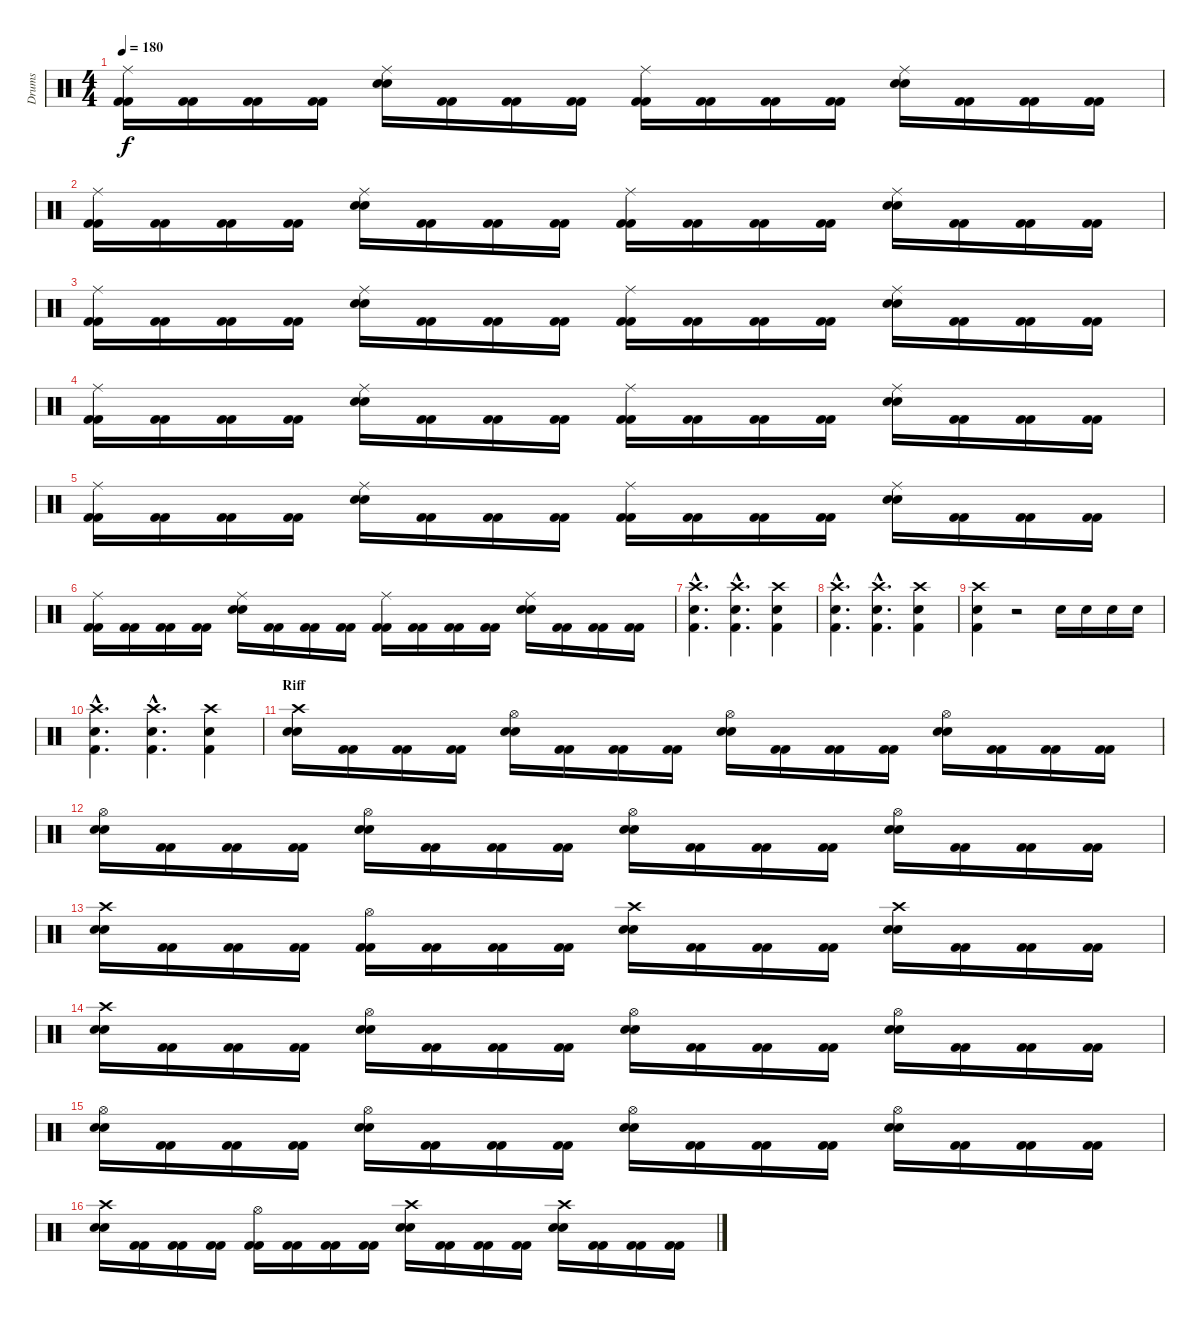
\track ("Drums" "Drums") {instrument percussion}
\staff {score}
\articulation defaults
\ts (4 4)
\tempo 180
\clef neutral
\ks c
("Ride (middle)" "Kick (hit) 2" "Kick (hit) 2").16{dy f} ("Kick (hit) 2" "Kick (hit) 2").16 ("Kick (hit) 2" "Kick (hit) 2").16 ("Kick (hit) 2" "Kick (hit) 2").16 ("Ride (middle)" "Snare (hit) 2" "Snare (hit) 2").16 ("Kick (hit) 2" "Kick (hit) 2").16 ("Kick (hit) 2" "Kick (hit) 2").16 ("Kick (hit) 2" "Kick (hit) 2").16 ("Ride (middle)" "Kick (hit) 2" "Kick (hit) 2").16 ("Kick (hit) 2" "Kick (hit) 2").16 ("Kick (hit) 2" "Kick (hit) 2").16 ("Kick (hit) 2" "Kick (hit) 2").16 ("Ride (middle)" "Snare (hit) 2" "Snare (hit) 2").16 ("Kick (hit) 2" "Kick (hit) 2").16 ("Kick (hit) 2" "Kick (hit) 2").16 ("Kick (hit) 2" "Kick (hit) 2").16 |
("Ride (middle)" "Kick (hit) 2" "Kick (hit) 2").16 ("Kick (hit) 2" "Kick (hit) 2").16 ("Kick (hit) 2" "Kick (hit) 2").16 ("Kick (hit) 2" "Kick (hit) 2").16 ("Ride (middle)" "Snare (hit) 2" "Snare (hit) 2").16 ("Kick (hit) 2" "Kick (hit) 2").16 ("Kick (hit) 2" "Kick (hit) 2").16 ("Kick (hit) 2" "Kick (hit) 2").16 ("Ride (middle)" "Kick (hit) 2" "Kick (hit) 2").16 ("Kick (hit) 2" "Kick (hit) 2").16 ("Kick (hit) 2" "Kick (hit) 2").16 ("Kick (hit) 2" "Kick (hit) 2").16 ("Ride (middle)" "Snare (hit) 2" "Snare (hit) 2").16 ("Kick (hit) 2" "Kick (hit) 2").16 ("Kick (hit) 2" "Kick (hit) 2").16 ("Kick (hit) 2" "Kick (hit) 2").16 |
("Ride (middle)" "Kick (hit) 2" "Kick (hit) 2").16 ("Kick (hit) 2" "Kick (hit) 2").16 ("Kick (hit) 2" "Kick (hit) 2").16 ("Kick (hit) 2" "Kick (hit) 2").16 ("Ride (middle)" "Snare (hit) 2" "Snare (hit) 2").16 ("Kick (hit) 2" "Kick (hit) 2").16 ("Kick (hit) 2" "Kick (hit) 2").16 ("Kick (hit) 2" "Kick (hit) 2").16 ("Ride (middle)" "Kick (hit) 2" "Kick (hit) 2").16 ("Kick (hit) 2" "Kick (hit) 2").16 ("Kick (hit) 2" "Kick (hit) 2").16 ("Kick (hit) 2" "Kick (hit) 2").16 ("Ride (middle)" "Snare (hit) 2" "Snare (hit) 2").16 ("Kick (hit) 2" "Kick (hit) 2").16 ("Kick (hit) 2" "Kick (hit) 2").16 ("Kick (hit) 2" "Kick (hit) 2").16 |
("Ride (middle)" "Kick (hit) 2" "Kick (hit) 2").16 ("Kick (hit) 2" "Kick (hit) 2").16 ("Kick (hit) 2" "Kick (hit) 2").16 ("Kick (hit) 2" "Kick (hit) 2").16 ("Ride (middle)" "Snare (hit) 2" "Snare (hit) 2").16 ("Kick (hit) 2" "Kick (hit) 2").16 ("Kick (hit) 2" "Kick (hit) 2").16 ("Kick (hit) 2" "Kick (hit) 2").16 ("Ride (middle)" "Kick (hit) 2" "Kick (hit) 2").16 ("Kick (hit) 2" "Kick (hit) 2").16 ("Kick (hit) 2" "Kick (hit) 2").16 ("Kick (hit) 2" "Kick (hit) 2").16 ("Ride (middle)" "Snare (hit) 2" "Snare (hit) 2").16 ("Kick (hit) 2" "Kick (hit) 2").16 ("Kick (hit) 2" "Kick (hit) 2").16 ("Kick (hit) 2" "Kick (hit) 2").16 |
("Ride (middle)" "Kick (hit) 2" "Kick (hit) 2").16 ("Kick (hit) 2" "Kick (hit) 2").16 ("Kick (hit) 2" "Kick (hit) 2").16 ("Kick (hit) 2" "Kick (hit) 2").16 ("Ride (middle)" "Snare (hit) 2" "Snare (hit) 2").16 ("Kick (hit) 2" "Kick (hit) 2").16 ("Kick (hit) 2" "Kick (hit) 2").16 ("Kick (hit) 2" "Kick (hit) 2").16 ("Ride (middle)" "Kick (hit) 2" "Kick (hit) 2").16 ("Kick (hit) 2" "Kick (hit) 2").16 ("Kick (hit) 2" "Kick (hit) 2").16 ("Kick (hit) 2" "Kick (hit) 2").16 ("Ride (middle)" "Snare (hit) 2" "Snare (hit) 2").16 ("Kick (hit) 2" "Kick (hit) 2").16 ("Kick (hit) 2" "Kick (hit) 2").16 ("Kick (hit) 2" "Kick (hit) 2").16 |
("Ride (middle)" "Kick (hit) 2" "Kick (hit) 2").16 ("Kick (hit) 2" "Kick (hit) 2").16 ("Kick (hit) 2" "Kick (hit) 2").16 ("Kick (hit) 2" "Kick (hit) 2").16 ("Ride (middle)" "Snare (hit) 2" "Snare (hit) 2").16 ("Kick (hit) 2" "Kick (hit) 2").16 ("Kick (hit) 2" "Kick (hit) 2").16 ("Kick (hit) 2" "Kick (hit) 2").16 ("Ride (middle)" "Kick (hit) 2" "Kick (hit) 2").16 ("Kick (hit) 2" "Kick (hit) 2").16 ("Kick (hit) 2" "Kick (hit) 2").16 ("Kick (hit) 2" "Kick (hit) 2").16 ("Ride (middle)" "Snare (hit) 2" "Snare (hit) 2").16 ("Kick (hit) 2" "Kick (hit) 2").16 ("Kick (hit) 2" "Kick (hit) 2").16 ("Kick (hit) 2" "Kick (hit) 2").16 |
("Crash high (hit)"{hac} "Snare (hit) 2"{hac} "Kick (hit) 2"{hac}).4{d} ("Crash high (hit)"{hac} "Snare (hit) 2"{hac} "Kick (hit) 2"{hac}).4{d} ("Crash high (hit)" "Snare (hit) 2" "Kick (hit) 2").4 |
("Crash high (hit)"{hac} "Snare (hit) 2"{hac} "Kick (hit) 2"{hac}).4{d} ("Crash high (hit)"{hac} "Snare (hit) 2"{hac} "Kick (hit) 2"{hac}).4{d} ("Crash high (hit)" "Snare (hit) 2" "Kick (hit) 2").4 |
("Crash high (hit)" "Snare (hit) 2" "Kick (hit) 2").4 r.2 "Snare (hit) 2".16 "Snare (hit) 2".16 "Snare (hit) 2".16 "Snare (hit) 2".16 |
("Crash high (hit)"{hac} "Snare (hit) 2"{hac} "Kick (hit) 2"{hac}).4{d} ("Crash high (hit)"{hac} "Snare (hit) 2"{hac} "Kick (hit) 2"{hac}).4{d} ("Crash high (hit)" "Snare (hit) 2" "Kick (hit) 2").4 |
\section ("" "Riff")
("Crash high (hit)" "Snare (hit) 2" "Snare (hit) 2").16 ("Kick (hit) 2" "Kick (hit) 2").16 ("Kick (hit) 2" "Kick (hit) 2").16 ("Kick (hit) 2" "Kick (hit) 2").16 ("Hi-Hat (open)" "Snare (hit) 2" "Snare (hit) 2").16 ("Kick (hit) 2" "Kick (hit) 2").16 ("Kick (hit) 2" "Kick (hit) 2").16 ("Kick (hit) 2" "Kick (hit) 2").16 ("Hi-Hat (open)" "Snare (hit) 2" "Snare (hit) 2").16 ("Kick (hit) 2" "Kick (hit) 2").16 ("Kick (hit) 2" "Kick (hit) 2").16 ("Kick (hit) 2" "Kick (hit) 2").16 ("Hi-Hat (open)" "Snare (hit) 2" "Snare (hit) 2").16 ("Kick (hit) 2" "Kick (hit) 2").16 ("Kick (hit) 2" "Kick (hit) 2").16 ("Kick (hit) 2" "Kick (hit) 2").16 |
("Hi-Hat (open)" "Snare (hit) 2" "Snare (hit) 2").16 ("Kick (hit) 2" "Kick (hit) 2").16 ("Kick (hit) 2" "Kick (hit) 2").16 ("Kick (hit) 2" "Kick (hit) 2").16 ("Hi-Hat (open)" "Snare (hit) 2" "Snare (hit) 2").16 ("Kick (hit) 2" "Kick (hit) 2").16 ("Kick (hit) 2" "Kick (hit) 2").16 ("Kick (hit) 2" "Kick (hit) 2").16 ("Hi-Hat (open)" "Snare (hit) 2" "Snare (hit) 2").16 ("Kick (hit) 2" "Kick (hit) 2").16 ("Kick (hit) 2" "Kick (hit) 2").16 ("Kick (hit) 2" "Kick (hit) 2").16 ("Hi-Hat (open)" "Snare (hit) 2" "Snare (hit) 2").16 ("Kick (hit) 2" "Kick (hit) 2").16 ("Kick (hit) 2" "Kick (hit) 2").16 ("Kick (hit) 2" "Kick (hit) 2").16 |
("Crash high (hit)" "Snare (hit) 2" "Snare (hit) 2").16 ("Kick (hit) 2" "Kick (hit) 2").16 ("Kick (hit) 2" "Kick (hit) 2").16 ("Kick (hit) 2" "Kick (hit) 2").16 ("Hi-Hat (open)" "Kick (hit) 2" "Kick (hit) 2").16 ("Kick (hit) 2" "Kick (hit) 2").16 ("Kick (hit) 2" "Kick (hit) 2").16 ("Kick (hit) 2" "Kick (hit) 2").16 ("Crash high (hit)" "Snare (hit) 2" "Snare (hit) 2").16 ("Kick (hit) 2" "Kick (hit) 2").16 ("Kick (hit) 2" "Kick (hit) 2").16 ("Kick (hit) 2" "Kick (hit) 2").16 ("Crash high (hit)" "Snare (hit) 2" "Snare (hit) 2").16 ("Kick (hit) 2" "Kick (hit) 2").16 ("Kick (hit) 2" "Kick (hit) 2").16 ("Kick (hit) 2" "Kick (hit) 2").16 |
("Crash high (hit)" "Snare (hit) 2" "Snare (hit) 2").16 ("Kick (hit) 2" "Kick (hit) 2").16 ("Kick (hit) 2" "Kick (hit) 2").16 ("Kick (hit) 2" "Kick (hit) 2").16 ("Hi-Hat (open)" "Snare (hit) 2" "Snare (hit) 2").16 ("Kick (hit) 2" "Kick (hit) 2").16 ("Kick (hit) 2" "Kick (hit) 2").16 ("Kick (hit) 2" "Kick (hit) 2").16 ("Hi-Hat (open)" "Snare (hit) 2" "Snare (hit) 2").16 ("Kick (hit) 2" "Kick (hit) 2").16 ("Kick (hit) 2" "Kick (hit) 2").16 ("Kick (hit) 2" "Kick (hit) 2").16 ("Hi-Hat (open)" "Snare (hit) 2" "Snare (hit) 2").16 ("Kick (hit) 2" "Kick (hit) 2").16 ("Kick (hit) 2" "Kick (hit) 2").16 ("Kick (hit) 2" "Kick (hit) 2").16 |
("Hi-Hat (open)" "Snare (hit) 2" "Snare (hit) 2").16 ("Kick (hit) 2" "Kick (hit) 2").16 ("Kick (hit) 2" "Kick (hit) 2").16 ("Kick (hit) 2" "Kick (hit) 2").16 ("Hi-Hat (open)" "Snare (hit) 2" "Snare (hit) 2").16 ("Kick (hit) 2" "Kick (hit) 2").16 ("Kick (hit) 2" "Kick (hit) 2").16 ("Kick (hit) 2" "Kick (hit) 2").16 ("Hi-Hat (open)" "Snare (hit) 2" "Snare (hit) 2").16 ("Kick (hit) 2" "Kick (hit) 2").16 ("Kick (hit) 2" "Kick (hit) 2").16 ("Kick (hit) 2" "Kick (hit) 2").16 ("Hi-Hat (open)" "Snare (hit) 2" "Snare (hit) 2").16 ("Kick (hit) 2" "Kick (hit) 2").16 ("Kick (hit) 2" "Kick (hit) 2").16 ("Kick (hit) 2" "Kick (hit) 2").16 |
("Crash high (hit)" "Snare (hit) 2" "Snare (hit) 2").16 ("Kick (hit) 2" "Kick (hit) 2").16 ("Kick (hit) 2" "Kick (hit) 2").16 ("Kick (hit) 2" "Kick (hit) 2").16 ("Hi-Hat (open)" "Kick (hit) 2" "Kick (hit) 2").16 ("Kick (hit) 2" "Kick (hit) 2").16 ("Kick (hit) 2" "Kick (hit) 2").16 ("Kick (hit) 2" "Kick (hit) 2").16 ("Crash high (hit)" "Snare (hit) 2" "Snare (hit) 2").16 ("Kick (hit) 2" "Kick (hit) 2").16 ("Kick (hit) 2" "Kick (hit) 2").16 ("Kick (hit) 2" "Kick (hit) 2").16 ("Crash high (hit)" "Snare (hit) 2" "Snare (hit) 2").16 ("Kick (hit) 2" "Kick (hit) 2").16 ("Kick (hit) 2" "Kick (hit) 2").16 ("Kick (hit) 2" "Kick (hit) 2").16
